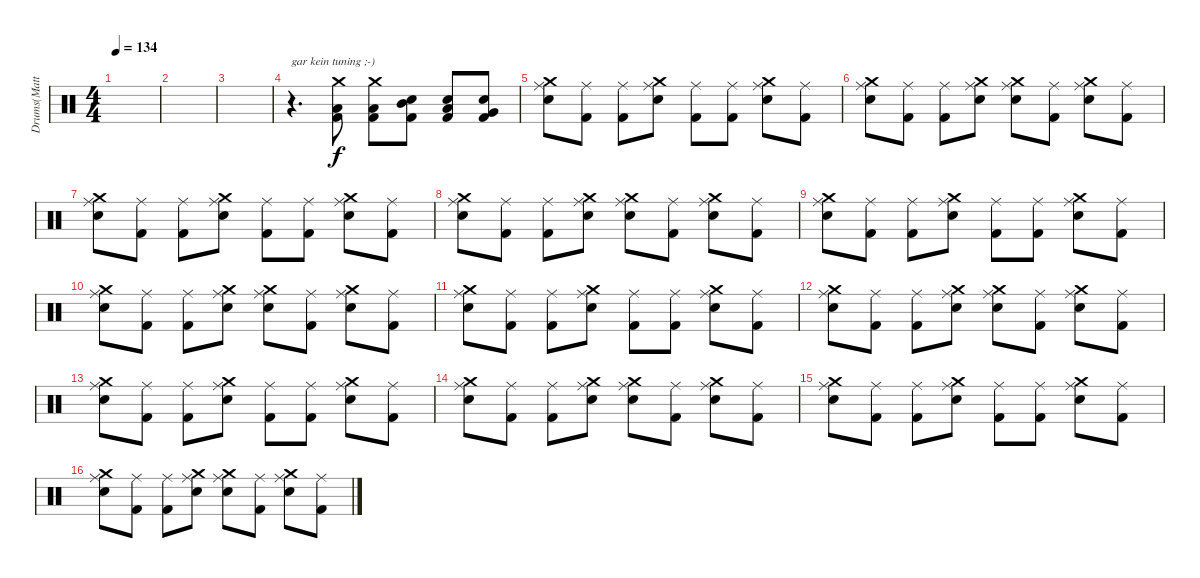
\track ("Drums(Matthias)" "Drums(Matt") {instrument percussion}
\staff {score}
\articulation defaults
\ts (4 4)
\tempo 134
\clef neutral
\ks c
|
|
|
r.4{d txt "gar kein tuning ;-)"} ("Crash medium (hit)" "Low Tom (hit)" "Kick (hit) 2").8 ("Crash medium (hit)" "Low Tom (hit)" "Kick (hit) 2").8 ("Snare (hit) 2" "Mid Tom (hit)" "Kick (hit) 2").8 ("Snare (hit) 2" "Low Tom (hit)" "Kick (hit) 2").8 ("Snare (hit) 2" "Very Low Tom (hit)" "Kick (hit) 2").8 |
("Ride (middle)" "Crash medium (hit)" "Snare (hit) 2").8 ("Ride (middle)" "Kick (hit) 2").8 ("Ride (middle)" "Kick (hit) 2").8 ("Ride (middle)" "Crash medium (hit)" "Snare (hit) 2").8 ("Ride (middle)" "Kick (hit) 2").8 ("Ride (middle)" "Kick (hit) 2").8 ("Ride (middle)" "Crash medium (hit)" "Snare (hit) 2").8 ("Ride (middle)" "Kick (hit) 2").8 |
("Ride (middle)" "Crash medium (hit)" "Snare (hit) 2").8 ("Ride (middle)" "Kick (hit) 2").8 ("Ride (middle)" "Kick (hit) 2").8 ("Ride (middle)" "Crash medium (hit)" "Snare (hit) 2").8 ("Ride (middle)" "Crash medium (hit)" "Snare (hit) 2").8 ("Ride (middle)" "Kick (hit) 2").8 ("Ride (middle)" "Crash medium (hit)" "Snare (hit) 2").8 ("Ride (middle)" "Kick (hit) 2").8 |
("Ride (middle)" "Crash medium (hit)" "Snare (hit) 2").8 ("Ride (middle)" "Kick (hit) 2").8 ("Ride (middle)" "Kick (hit) 2").8 ("Ride (middle)" "Crash medium (hit)" "Snare (hit) 2").8 ("Ride (middle)" "Kick (hit) 2").8 ("Ride (middle)" "Kick (hit) 2").8 ("Ride (middle)" "Crash medium (hit)" "Snare (hit) 2").8 ("Ride (middle)" "Kick (hit) 2").8 |
("Ride (middle)" "Crash medium (hit)" "Snare (hit) 2").8 ("Ride (middle)" "Kick (hit) 2").8 ("Ride (middle)" "Kick (hit) 2").8 ("Ride (middle)" "Crash medium (hit)" "Snare (hit) 2").8 ("Ride (middle)" "Crash medium (hit)" "Snare (hit) 2").8 ("Ride (middle)" "Kick (hit) 2").8 ("Ride (middle)" "Crash medium (hit)" "Snare (hit) 2").8 ("Ride (middle)" "Kick (hit) 2").8 |
("Ride (middle)" "Crash medium (hit)" "Snare (hit) 2").8 ("Ride (middle)" "Kick (hit) 2").8 ("Ride (middle)" "Kick (hit) 2").8 ("Ride (middle)" "Crash medium (hit)" "Snare (hit) 2").8 ("Ride (middle)" "Kick (hit) 2").8 ("Ride (middle)" "Kick (hit) 2").8 ("Ride (middle)" "Crash medium (hit)" "Snare (hit) 2").8 ("Ride (middle)" "Kick (hit) 2").8 |
("Ride (middle)" "Crash medium (hit)" "Snare (hit) 2").8 ("Ride (middle)" "Kick (hit) 2").8 ("Ride (middle)" "Kick (hit) 2").8 ("Ride (middle)" "Crash medium (hit)" "Snare (hit) 2").8 ("Ride (middle)" "Crash medium (hit)" "Snare (hit) 2").8 ("Ride (middle)" "Kick (hit) 2").8 ("Ride (middle)" "Crash medium (hit)" "Snare (hit) 2").8 ("Ride (middle)" "Kick (hit) 2").8 |
("Ride (middle)" "Crash medium (hit)" "Snare (hit) 2").8 ("Ride (middle)" "Kick (hit) 2").8 ("Ride (middle)" "Kick (hit) 2").8 ("Ride (middle)" "Crash medium (hit)" "Snare (hit) 2").8 ("Ride (middle)" "Kick (hit) 2").8 ("Ride (middle)" "Kick (hit) 2").8 ("Ride (middle)" "Crash medium (hit)" "Snare (hit) 2").8 ("Ride (middle)" "Kick (hit) 2").8 |
("Ride (middle)" "Crash medium (hit)" "Snare (hit) 2").8 ("Ride (middle)" "Kick (hit) 2").8 ("Ride (middle)" "Kick (hit) 2").8 ("Ride (middle)" "Crash medium (hit)" "Snare (hit) 2").8 ("Ride (middle)" "Crash medium (hit)" "Snare (hit) 2").8 ("Ride (middle)" "Kick (hit) 2").8 ("Ride (middle)" "Crash medium (hit)" "Snare (hit) 2").8 ("Ride (middle)" "Kick (hit) 2").8 |
("Ride (middle)" "Crash medium (hit)" "Snare (hit) 2").8 ("Ride (middle)" "Kick (hit) 2").8 ("Ride (middle)" "Kick (hit) 2").8 ("Ride (middle)" "Crash medium (hit)" "Snare (hit) 2").8 ("Ride (middle)" "Kick (hit) 2").8 ("Ride (middle)" "Kick (hit) 2").8 ("Ride (middle)" "Crash medium (hit)" "Snare (hit) 2").8 ("Ride (middle)" "Kick (hit) 2").8 |
("Ride (middle)" "Crash medium (hit)" "Snare (hit) 2").8 ("Ride (middle)" "Kick (hit) 2").8 ("Ride (middle)" "Kick (hit) 2").8 ("Ride (middle)" "Crash medium (hit)" "Snare (hit) 2").8 ("Ride (middle)" "Crash medium (hit)" "Snare (hit) 2").8 ("Ride (middle)" "Kick (hit) 2").8 ("Ride (middle)" "Crash medium (hit)" "Snare (hit) 2").8 ("Ride (middle)" "Kick (hit) 2").8 |
("Ride (middle)" "Crash medium (hit)" "Snare (hit) 2").8 ("Ride (middle)" "Kick (hit) 2").8 ("Ride (middle)" "Kick (hit) 2").8 ("Ride (middle)" "Crash medium (hit)" "Snare (hit) 2").8 ("Ride (middle)" "Kick (hit) 2").8 ("Ride (middle)" "Kick (hit) 2").8 ("Ride (middle)" "Crash medium (hit)" "Snare (hit) 2").8 ("Ride (middle)" "Kick (hit) 2").8 |
("Ride (middle)" "Crash medium (hit)" "Snare (hit) 2").8 ("Ride (middle)" "Kick (hit) 2").8 ("Ride (middle)" "Kick (hit) 2").8 ("Ride (middle)" "Crash medium (hit)" "Snare (hit) 2").8 ("Ride (middle)" "Crash medium (hit)" "Snare (hit) 2").8 ("Ride (middle)" "Kick (hit) 2").8 ("Ride (middle)" "Crash medium (hit)" "Snare (hit) 2").8 ("Ride (middle)" "Kick (hit) 2").8
